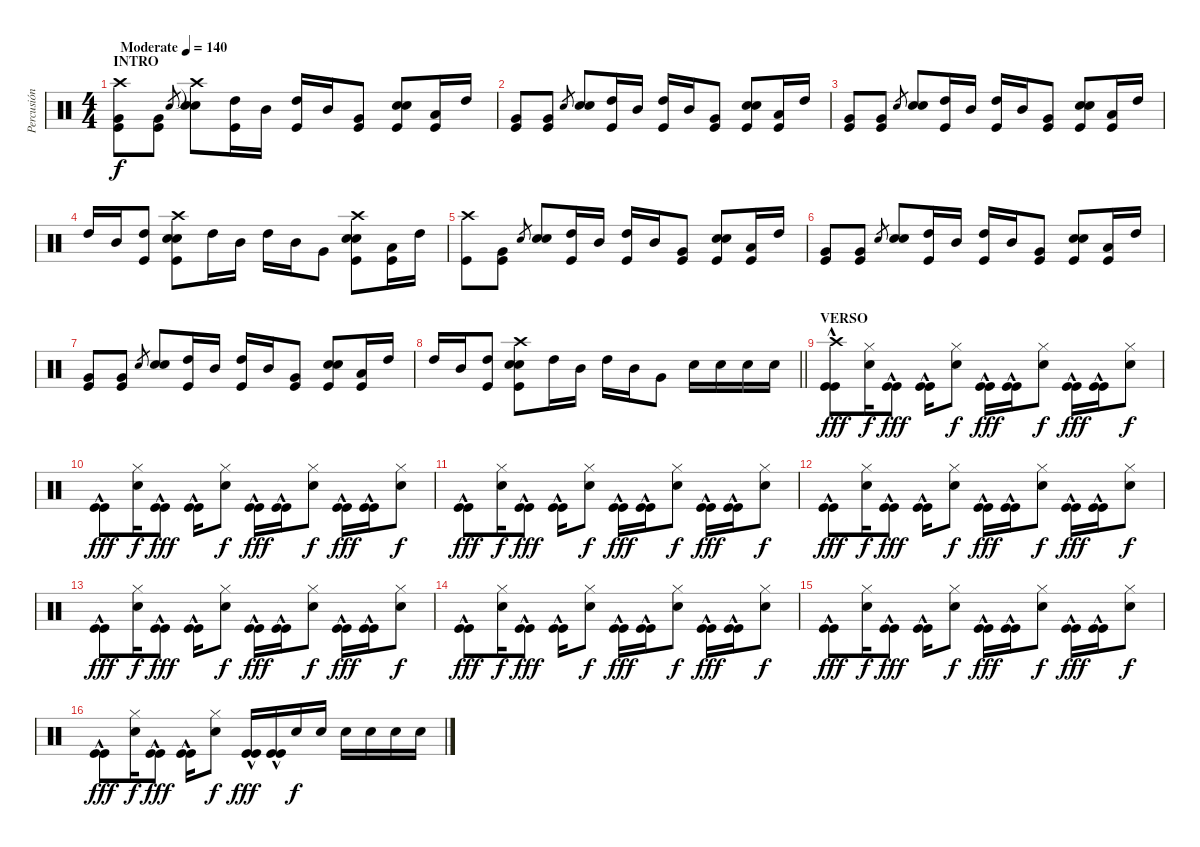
\track ("Percusión" "Percusión") {instrument percussion}
\staff {score}
\articulation defaults
\ts (4 4)
\section ("" "INTRO")
\tempo (140 "Moderate")
\clef neutral
\ks c
("Crash high (hit)" "Kick (hit)" "Very Low Tom (hit)").8{dy f} ("Very Low Tom (hit)" "Kick (hit)").8 "Electric Snare (hit)".8{gr} ("Crash high (hit)"{t} "Electric Snare (hit)" "Electric Snare (hit)").8 ("Kick (hit)" "High Tom (hit)").16 "Mid Tom (hit)".16 ("Kick (hit)" "High Tom (hit)").16 "Mid Tom (hit)".16 ("Very Low Tom (hit)" "Kick (hit)").8 ("Kick (hit)" "Electric Snare (hit)" "Electric Snare (hit)").8 ("Low Floor Tom (hit)" "Kick (hit)").16 "High Tom (hit)".16 |
("Very Low Tom (hit)" "Kick (hit)").8 ("Very Low Tom (hit)" "Kick (hit)").8 "Electric Snare (hit)".8{gr} ("Electric Snare (hit)" "Electric Snare (hit)").8 ("Kick (hit)" "High Tom (hit)").16 "Mid Tom (hit)".16 ("Kick (hit)" "High Tom (hit)").16 "Mid Tom (hit)".16 ("Very Low Tom (hit)" "Kick (hit)").8 ("Kick (hit)" "Electric Snare (hit)" "Electric Snare (hit)").8 ("Low Floor Tom (hit)" "Kick (hit)").16 "High Tom (hit)".16 |
("Very Low Tom (hit)" "Kick (hit)").8 ("Very Low Tom (hit)" "Kick (hit)").8 "Electric Snare (hit)".8{gr} ("Electric Snare (hit)" "Electric Snare (hit)").8 ("Kick (hit)" "High Tom (hit)").16 "Mid Tom (hit)".16 ("Kick (hit)" "High Tom (hit)").16 "Mid Tom (hit)".16 ("Very Low Tom (hit)" "Kick (hit)").8 ("Kick (hit)" "Electric Snare (hit)" "Electric Snare (hit)").8 ("Low Floor Tom (hit)" "Kick (hit)").16 "High Tom (hit)".16 |
"High Tom (hit)".16 "Mid Tom (hit)".16 ("High Tom (hit)" "Kick (hit)").8 ("Crash high (hit)" "Electric Snare (hit)" "Kick (hit)" "Electric Snare (hit)").8 "High Tom (hit)".16 "Mid Tom (hit)".16 "High Tom (hit)".16 "Mid Tom (hit)".16 "Very Low Tom (hit)".8 ("Crash high (hit)" "Electric Snare (hit)" "Kick (hit)" "Electric Snare (hit)").8 ("Low Floor Tom (hit)" "Kick (hit)").16 "High Tom (hit)".16 |
("Kick (hit)" "Crash high (hit)").8 ("Very Low Tom (hit)" "Kick (hit)").8 "Electric Snare (hit)".8{gr} ("Electric Snare (hit)" "Electric Snare (hit)").8 ("Kick (hit)" "High Tom (hit)").16 "Mid Tom (hit)".16 ("Kick (hit)" "High Tom (hit)").16 "Mid Tom (hit)".16 ("Very Low Tom (hit)" "Kick (hit)").8 ("Kick (hit)" "Electric Snare (hit)" "Electric Snare (hit)").8 ("Low Floor Tom (hit)" "Kick (hit)").16 "High Tom (hit)".16 |
("Very Low Tom (hit)" "Kick (hit)").8 ("Very Low Tom (hit)" "Kick (hit)").8 "Electric Snare (hit)".8{gr} ("Electric Snare (hit)" "Electric Snare (hit)").8 ("Kick (hit)" "High Tom (hit)").16 "Mid Tom (hit)".16 ("Kick (hit)" "High Tom (hit)").16 "Mid Tom (hit)".16 ("Very Low Tom (hit)" "Kick (hit)").8 ("Kick (hit)" "Electric Snare (hit)" "Electric Snare (hit)").8 ("Low Floor Tom (hit)" "Kick (hit)").16 "High Tom (hit)".16 |
("Very Low Tom (hit)" "Kick (hit)").8 ("Very Low Tom (hit)" "Kick (hit)").8 "Electric Snare (hit)".8{gr} ("Electric Snare (hit)" "Electric Snare (hit)").8 ("Kick (hit)" "High Tom (hit)").16 "Mid Tom (hit)".16 ("Kick (hit)" "High Tom (hit)").16 "Mid Tom (hit)".16 ("Very Low Tom (hit)" "Kick (hit)").8 ("Kick (hit)" "Electric Snare (hit)" "Electric Snare (hit)").8 ("Low Floor Tom (hit)" "Kick (hit)").16 "High Tom (hit)".16 |
\barLineRight lightlight "High Tom (hit)".16 "Mid Tom (hit)".16
("High Tom (hit)" "Kick (hit)").8 ("Crash high (hit)" "Electric Snare (hit)" "Kick (hit)" "Electric Snare (hit)").8 "High Tom (hit)".16 "Mid Tom (hit)".16 "High Tom (hit)".16 "Mid Tom (hit)".16 "Very Low Tom (hit)".8 "Electric Snare (hit)".16 "Electric Snare (hit)".16 "Electric Snare (hit)".16 "Electric Snare (hit)".16 |
\section ("" "VERSO")
("Crash high (hit)" "Kick (hit)"{hac} "Kick (hit)").8{dy fff} ("Hi-Hat (closed)" "Snare (hit) 2").16{dy f} ("Kick (hit)"{hac} "Kick (hit)").8{dy fff} ("Kick (hit)" "Kick (hit)"{hac}).16 ("Hi-Hat (closed)" "Snare (hit) 2").8{dy f} ("Kick (hit)"{hac} "Kick (hit)").16{dy fff} ("Kick (hit)"{hac} "Kick (hit)").16 ("Hi-Hat (closed)" "Snare (hit) 2").8{dy f} ("Kick (hit)"{hac} "Kick (hit)").16{dy fff} ("Kick (hit)"{hac} "Kick (hit)").16 ("Hi-Hat (closed)" "Snare (hit) 2").8{dy f} |
("Kick (hit)"{hac} "Kick (hit)").8{dy fff} ("Hi-Hat (closed)" "Snare (hit) 2").16{dy f} ("Kick (hit)"{hac} "Kick (hit)").8{dy fff} ("Kick (hit)" "Kick (hit)"{hac}).16 ("Hi-Hat (closed)" "Snare (hit) 2").8{dy f} ("Kick (hit)"{hac} "Kick (hit)").16{dy fff} ("Kick (hit)"{hac} "Kick (hit)").16 ("Hi-Hat (closed)" "Snare (hit) 2").8{dy f} ("Kick (hit)"{hac} "Kick (hit)").16{dy fff} ("Kick (hit)"{hac} "Kick (hit)").16 ("Hi-Hat (closed)" "Snare (hit) 2").8{dy f} |
("Kick (hit)"{hac} "Kick (hit)").8{dy fff} ("Hi-Hat (closed)" "Snare (hit) 2").16{dy f} ("Kick (hit)"{hac} "Kick (hit)").8{dy fff} ("Kick (hit)" "Kick (hit)"{hac}).16 ("Hi-Hat (closed)" "Snare (hit) 2").8{dy f} ("Kick (hit)"{hac} "Kick (hit)").16{dy fff} ("Kick (hit)"{hac} "Kick (hit)").16 ("Hi-Hat (closed)" "Snare (hit) 2").8{dy f} ("Kick (hit)"{hac} "Kick (hit)").16{dy fff} ("Kick (hit)"{hac} "Kick (hit)").16 ("Hi-Hat (closed)" "Snare (hit) 2").8{dy f} |
("Kick (hit)"{hac} "Kick (hit)").8{dy fff} ("Hi-Hat (closed)" "Snare (hit) 2").16{dy f} ("Kick (hit)"{hac} "Kick (hit)").8{dy fff} ("Kick (hit)" "Kick (hit)"{hac}).16 ("Hi-Hat (closed)" "Snare (hit) 2").8{dy f} ("Kick (hit)"{hac} "Kick (hit)").16{dy fff} ("Kick (hit)"{hac} "Kick (hit)").16 ("Hi-Hat (closed)" "Snare (hit) 2").8{dy f} ("Kick (hit)"{hac} "Kick (hit)").16{dy fff} ("Kick (hit)"{hac} "Kick (hit)").16 ("Hi-Hat (closed)" "Snare (hit) 2").8{dy f} |
("Kick (hit)"{hac} "Kick (hit)").8{dy fff} ("Hi-Hat (closed)" "Snare (hit) 2").16{dy f} ("Kick (hit)"{hac} "Kick (hit)").8{dy fff} ("Kick (hit)" "Kick (hit)"{hac}).16 ("Hi-Hat (closed)" "Snare (hit) 2").8{dy f} ("Kick (hit)"{hac} "Kick (hit)").16{dy fff} ("Kick (hit)"{hac} "Kick (hit)").16 ("Hi-Hat (closed)" "Snare (hit) 2").8{dy f} ("Kick (hit)"{hac} "Kick (hit)").16{dy fff} ("Kick (hit)"{hac} "Kick (hit)").16 ("Hi-Hat (closed)" "Snare (hit) 2").8{dy f} |
("Kick (hit)"{hac} "Kick (hit)").8{dy fff} ("Hi-Hat (closed)" "Snare (hit) 2").16{dy f} ("Kick (hit)"{hac} "Kick (hit)").8{dy fff} ("Kick (hit)" "Kick (hit)"{hac}).16 ("Hi-Hat (closed)" "Snare (hit) 2").8{dy f} ("Kick (hit)"{hac} "Kick (hit)").16{dy fff} ("Kick (hit)"{hac} "Kick (hit)").16 ("Hi-Hat (closed)" "Snare (hit) 2").8{dy f} ("Kick (hit)"{hac} "Kick (hit)").16{dy fff} ("Kick (hit)"{hac} "Kick (hit)").16 ("Hi-Hat (closed)" "Snare (hit) 2").8{dy f} |
("Kick (hit)"{hac} "Kick (hit)").8{dy fff} ("Hi-Hat (closed)" "Snare (hit) 2").16{dy f} ("Kick (hit)"{hac} "Kick (hit)").8{dy fff} ("Kick (hit)" "Kick (hit)"{hac}).16 ("Hi-Hat (closed)" "Snare (hit) 2").8{dy f} ("Kick (hit)"{hac} "Kick (hit)").16{dy fff} ("Kick (hit)"{hac} "Kick (hit)").16 ("Hi-Hat (closed)" "Snare (hit) 2").8{dy f} ("Kick (hit)"{hac} "Kick (hit)").16{dy fff} ("Kick (hit)"{hac} "Kick (hit)").16 ("Hi-Hat (closed)" "Snare (hit) 2").8{dy f} |
("Kick (hit)"{hac} "Kick (hit)").8{dy fff} ("Hi-Hat (closed)" "Snare (hit) 2").16{dy f} ("Kick (hit)"{hac} "Kick (hit)").8{dy fff} ("Kick (hit)" "Kick (hit)"{hac}).16 ("Hi-Hat (closed)" "Snare (hit) 2").8{dy f} ("Kick (hit)"{hac} "Kick (hit)").16{dy fff} ("Kick (hit)"{hac} "Kick (hit)").16 "Snare (hit) 2".16{dy f} "Snare (hit) 2".16 "Snare (hit) 2".16 "Snare (hit) 2".16 "Snare (hit) 2".16 "Snare (hit) 2".16
